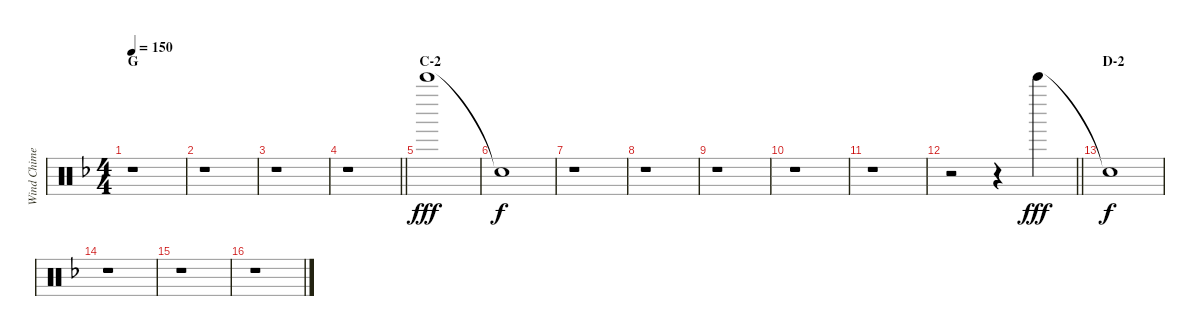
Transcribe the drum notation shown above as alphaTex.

\track ("Wind Chime" "Wind Chime") {instrument percussion}
\staff {score}
\articulation defaults
\ts (4 4)
\section ("" "G")
\tempo 150
\clef neutral
\ks f
r.1{dy f} |
r.1 |
r.1 |
\barLineRight lightlight
r.1 |
\section ("" "C-2")
"Bell Tree (hit)".1{dy fff} |
"Snare (hit)"{t}.1{dy f} |
r.1 |
r.1 |
r.1 |
r.1 |
r.1 |
\barLineRight lightlight
r.2 r.4 "Bell Tree (hit)".4{dy fff} |
\section ("" "D-2")
"Snare (hit)"{t}.1{dy f} |
r.1 |
r.1 |
r.1
